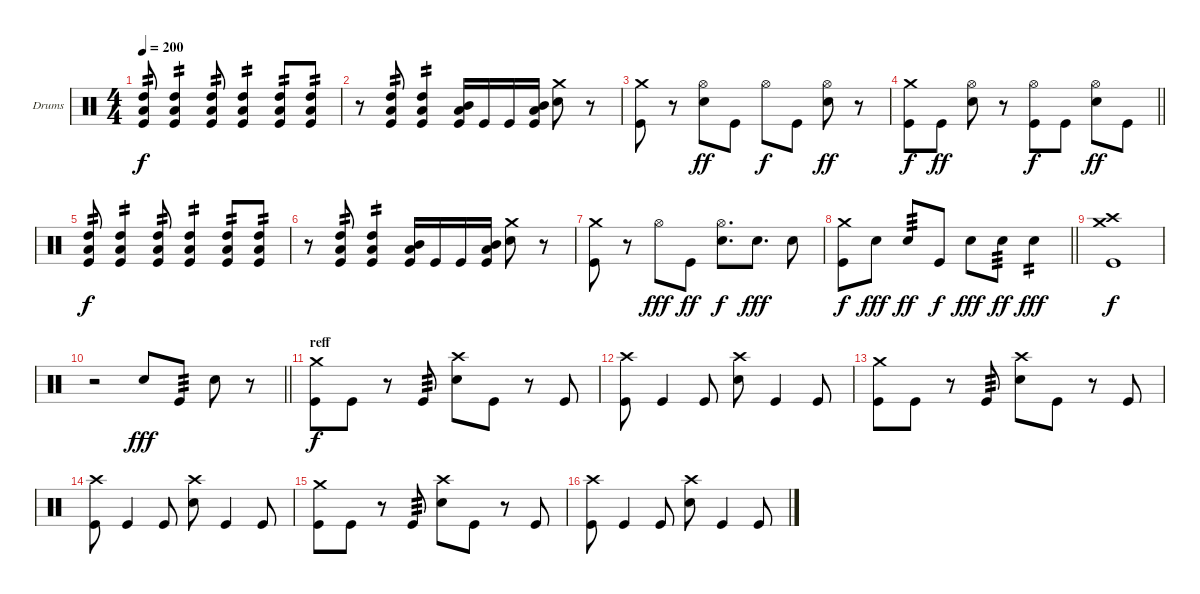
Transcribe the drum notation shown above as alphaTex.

\bracketExtendMode groupsimilarinstruments
\firstSystemTrackNameOrientation horizontal
\otherSystemsTrackNameOrientation horizontal
\track ("Drumkit" "Drums") {instrument percussion}
\staff {score}
\articulation defaults
\ts (4 4)
\section ("" "")
\tempo 200
\clef neutral
\ks c
("High Tom (hit)" "Low Tom (hit)" "Kick (hit)").8{tp 2 dy f} ("High Tom (hit)" "Low Tom (hit)" "Kick (hit)").4{tp 2} ("High Tom (hit)" "Low Tom (hit)" "Kick (hit)").8{tp 2} ("High Tom (hit)" "Low Tom (hit)" "Kick (hit)").4{tp 2} ("High Tom (hit)" "Low Tom (hit)" "Kick (hit)").8{tp 2} ("High Tom (hit)" "Low Tom (hit)" "Kick (hit)").8{tp 2} |
r.8 ("High Tom (hit)" "Low Tom (hit)" "Kick (hit)").8{tp 2} ("High Tom (hit)" "Low Tom (hit)" "Kick (hit)").4{tp 2} ("Mid Tom (hit)" "Low Tom (hit)" "Kick (hit)").16 "Kick (hit)".16 "Kick (hit)".16 ("Mid Tom (hit)" "Low Tom (hit)" "Kick (hit)").16 ("Crash medium (hit)" "Snare (hit) 2").8 r.8 |
("Crash medium (hit)" "Kick (hit)").8 r.8 ("Hi-Hat (open)" "Snare (hit) 2").8{dy ff} "Kick (hit)".8 "Hi-Hat (open)".8{dy f} "Kick (hit)".8 ("Hi-Hat (open)" "Snare (hit) 2").8{dy ff} r.8 |
\barLineRight lightlight
("Crash medium (hit)" "Kick (hit)").8{dy f} "Kick (hit)".8{dy ff} ("Hi-Hat (open)" "Snare (hit) 2").8 r.8 ("Hi-Hat (open)" "Kick (hit)").8{dy f} "Kick (hit)".8 ("Hi-Hat (open)" "Snare (hit) 2").8{dy ff} "Kick (hit)".8 |
("High Tom (hit)" "Low Tom (hit)" "Kick (hit)").8{tp 2 dy f} ("High Tom (hit)" "Low Tom (hit)" "Kick (hit)").4{tp 2} ("High Tom (hit)" "Low Tom (hit)" "Kick (hit)").8{tp 2} ("High Tom (hit)" "Low Tom (hit)" "Kick (hit)").4{tp 2} ("High Tom (hit)" "Low Tom (hit)" "Kick (hit)").8{tp 2} ("High Tom (hit)" "Low Tom (hit)" "Kick (hit)").8{tp 2} |
r.8 ("High Tom (hit)" "Low Tom (hit)" "Kick (hit)").8{tp 2} ("High Tom (hit)" "Low Tom (hit)" "Kick (hit)").4{tp 2} ("Mid Tom (hit)" "Low Tom (hit)" "Kick (hit)").16 "Kick (hit)".16 "Kick (hit)".16 ("Mid Tom (hit)" "Low Tom (hit)" "Kick (hit)").16 ("Crash medium (hit)" "Snare (hit) 2").8 r.8 |
("Crash medium (hit)" "Kick (hit)").8 r.8 "Hi-Hat (open)".8{dy fff} "Kick (hit)".8{dy ff} ("Hi-Hat (open)" "Snare (hit) 2").8{d dy f} "Snare (hit) 2".8{d dy fff} "Snare (hit) 2".8 |
\barLineRight lightlight
("Crash medium (hit)" "Kick (hit)").8{dy f} "Snare (hit) 2".8{dy fff} "Snare (hit) 2".8{tp 3 dy ff} "Kick (hit)".8{dy f} "Snare (hit) 2".8{dy fff} "Snare (hit) 2".8{tp 3 dy ff} "Snare (hit) 2".4{tp 2 dy fff} |
\section ("" "")
("Crash high (hit)" "Crash medium (hit)" "Kick (hit)").1{dy f} |
\barLineRight lightlight
r.2 "Snare (hit) 2".8{dy fff} "Kick (hit)".8{tp 3} "Snare (hit) 2".8 r.8 |
\section ("" "reff")
("Crash medium (hit)" "Kick (hit)").8{dy f} "Kick (hit)".8 r.8 "Kick (hit)".8{tp 3} ("Crash high (hit)" "Snare (hit) 2").8 "Kick (hit)".8 r.8 "Kick (hit)".8 |
("Crash high (hit)" "Kick (hit)").8 "Kick (hit)".4 "Kick (hit)".8 ("Crash high (hit)" "Snare (hit) 2").8 "Kick (hit)".4 "Kick (hit)".8 |
("Crash medium (hit)" "Kick (hit)").8 "Kick (hit)".8 r.8 "Kick (hit)".8{tp 3} ("Crash high (hit)" "Snare (hit) 2").8 "Kick (hit)".8 r.8 "Kick (hit)".8 |
("Crash high (hit)" "Kick (hit)").8 "Kick (hit)".4 "Kick (hit)".8 ("Crash high (hit)" "Snare (hit) 2").8 "Kick (hit)".4 "Kick (hit)".8 |
("Crash medium (hit)" "Kick (hit)").8 "Kick (hit)".8 r.8 "Kick (hit)".8{tp 3} ("Crash high (hit)" "Snare (hit) 2").8 "Kick (hit)".8 r.8 "Kick (hit)".8 |
("Crash high (hit)" "Kick (hit)").8 "Kick (hit)".4 "Kick (hit)".8 ("Crash high (hit)" "Snare (hit) 2").8 "Kick (hit)".4 "Kick (hit)".8
